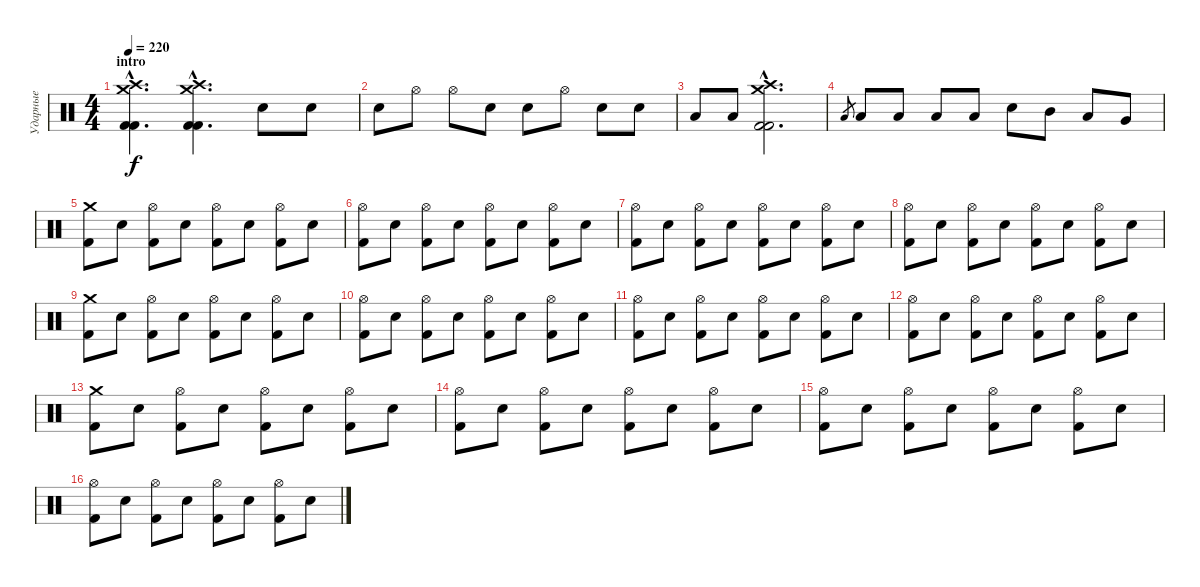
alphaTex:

\track ("Ударные" "Ударные") {instrument percussion}
\staff {score}
\articulation defaults
\ts (4 4)
\section ("" "intro")
\tempo 220
\clef neutral
\ks c
("Crash medium (hit)"{hac} "Crash high (hit)"{hac} "Kick (hit) 2"{hac} "Kick (hit) 2"{hac}).4{d dy f} ("Crash medium (hit)"{hac} "Crash high (hit)"{hac} "Kick (hit) 2"{hac} "Kick (hit) 2"{hac}).4{d} "Electric Snare (hit)".8 "Electric Snare (hit)".8 |
"Electric Snare (hit)".8 "Hi-Hat (open)".8 "Hi-Hat (open)".8 "Electric Snare (hit)".8 "Electric Snare (hit)".8 "Hi-Hat (open)".8 "Electric Snare (hit)".8 "Electric Snare (hit)".8 |
"Low Tom (hit)".8 "Low Tom (hit)".8 ("Crash medium (hit)"{hac} "Crash high (hit)"{hac} "Kick (hit) 2"{hac} "Kick (hit) 2"{hac}).2{d} |
"Low Tom (hit)".8{gr} "Low Tom (hit)".8 "Low Tom (hit)".8 "Low Tom (hit)".8 "Low Tom (hit)".8 "Electric Snare (hit)".8 "Mid Tom (hit)".8 "Low Tom (hit)".8 "Very Low Tom (hit)".8 |
("Crash medium (hit)" "Kick (hit) 2").8 "Electric Snare (hit)".8 ("Hi-Hat (open)" "Kick (hit) 2").8 "Electric Snare (hit)".8 ("Hi-Hat (open)" "Kick (hit) 2").8 "Electric Snare (hit)".8 ("Hi-Hat (open)" "Kick (hit) 2").8 "Electric Snare (hit)".8 |
("Hi-Hat (open)" "Kick (hit) 2").8 "Electric Snare (hit)".8 ("Hi-Hat (open)" "Kick (hit) 2").8 "Electric Snare (hit)".8 ("Hi-Hat (open)" "Kick (hit) 2").8 "Electric Snare (hit)".8 ("Hi-Hat (open)" "Kick (hit) 2").8 "Electric Snare (hit)".8 |
("Hi-Hat (open)" "Kick (hit) 2").8 "Electric Snare (hit)".8 ("Hi-Hat (open)" "Kick (hit) 2").8 "Electric Snare (hit)".8 ("Hi-Hat (open)" "Kick (hit) 2").8 "Electric Snare (hit)".8 ("Hi-Hat (open)" "Kick (hit) 2").8 "Electric Snare (hit)".8 |
("Hi-Hat (open)" "Kick (hit) 2").8 "Electric Snare (hit)".8 ("Hi-Hat (open)" "Kick (hit) 2").8 "Electric Snare (hit)".8 ("Hi-Hat (open)" "Kick (hit) 2").8 "Electric Snare (hit)".8 ("Hi-Hat (open)" "Kick (hit) 2").8 "Electric Snare (hit)".8 |
("Crash medium (hit)" "Kick (hit) 2").8 "Electric Snare (hit)".8 ("Hi-Hat (open)" "Kick (hit) 2").8 "Electric Snare (hit)".8 ("Hi-Hat (open)" "Kick (hit) 2").8 "Electric Snare (hit)".8 ("Hi-Hat (open)" "Kick (hit) 2").8 "Electric Snare (hit)".8 |
("Hi-Hat (open)" "Kick (hit) 2").8 "Electric Snare (hit)".8 ("Hi-Hat (open)" "Kick (hit) 2").8 "Electric Snare (hit)".8 ("Hi-Hat (open)" "Kick (hit) 2").8 "Electric Snare (hit)".8 ("Hi-Hat (open)" "Kick (hit) 2").8 "Electric Snare (hit)".8 |
("Hi-Hat (open)" "Kick (hit) 2").8 "Electric Snare (hit)".8 ("Hi-Hat (open)" "Kick (hit) 2").8 "Electric Snare (hit)".8 ("Hi-Hat (open)" "Kick (hit) 2").8 "Electric Snare (hit)".8 ("Hi-Hat (open)" "Kick (hit) 2").8 "Electric Snare (hit)".8 |
("Hi-Hat (open)" "Kick (hit) 2").8 "Electric Snare (hit)".8 ("Hi-Hat (open)" "Kick (hit) 2").8 "Electric Snare (hit)".8 ("Hi-Hat (open)" "Kick (hit) 2").8 "Electric Snare (hit)".8 ("Hi-Hat (open)" "Kick (hit) 2").8 "Electric Snare (hit)".8 |
("Crash medium (hit)" "Kick (hit) 2").8 "Electric Snare (hit)".8 ("Hi-Hat (open)" "Kick (hit) 2").8 "Electric Snare (hit)".8 ("Hi-Hat (open)" "Kick (hit) 2").8 "Electric Snare (hit)".8 ("Hi-Hat (open)" "Kick (hit) 2").8 "Electric Snare (hit)".8 |
("Hi-Hat (open)" "Kick (hit) 2").8 "Electric Snare (hit)".8 ("Hi-Hat (open)" "Kick (hit) 2").8 "Electric Snare (hit)".8 ("Hi-Hat (open)" "Kick (hit) 2").8 "Electric Snare (hit)".8 ("Hi-Hat (open)" "Kick (hit) 2").8 "Electric Snare (hit)".8 |
("Hi-Hat (open)" "Kick (hit) 2").8 "Electric Snare (hit)".8 ("Hi-Hat (open)" "Kick (hit) 2").8 "Electric Snare (hit)".8 ("Hi-Hat (open)" "Kick (hit) 2").8 "Electric Snare (hit)".8 ("Hi-Hat (open)" "Kick (hit) 2").8 "Electric Snare (hit)".8 |
("Hi-Hat (open)" "Kick (hit) 2").8 "Electric Snare (hit)".8 ("Hi-Hat (open)" "Kick (hit) 2").8 "Electric Snare (hit)".8 ("Hi-Hat (open)" "Kick (hit) 2").8 "Electric Snare (hit)".8 ("Hi-Hat (open)" "Kick (hit) 2").8 "Electric Snare (hit)".8
